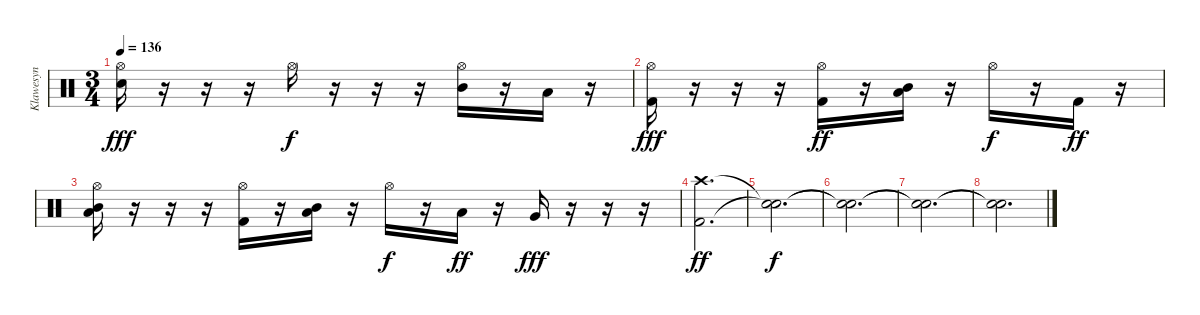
\track ("Klawesyn" "Klawesyn") {instrument percussion}
\staff {score}
\articulation defaults
\ts (3 4)
\tempo 136
\clef neutral
\ks c
("Hi-Hat (open)" "Snare (hit) 2").16{dy fff} r.16 r.16 r.16 "Hi-Hat (open)".16{dy f} r.16 r.16 r.16 ("Hi-Hat (open)" "Mid Tom (hit)").16 r.16 "Low Tom (hit)".16 r.16 |
("Hi-Hat (open)" "Kick (hit) 2").16{dy fff} r.16 r.16 r.16 ("Hi-Hat (open)" "Kick (hit) 2").16{dy ff} r.16 ("Low Tom (hit)" "Mid Tom (hit)").16 r.16 "Hi-Hat (open)".16{dy f} r.16 "Kick (hit) 2".16{dy ff} r.16 |
("Hi-Hat (open)" "Low Tom (hit)" "Mid Tom (hit)").16 r.16 r.16 r.16 ("Hi-Hat (open)" "Kick (hit) 2").16 r.16 ("Low Tom (hit)" "Mid Tom (hit)").16 r.16 "Hi-Hat (open)".16{dy f} r.16 "Low Tom (hit)".16{dy ff} r.16 "Very Low Tom (hit)".16{dy fff} r.16 r.16 r.16 |
("Crash high (hit)" "Kick (hit) 2").2{d dy ff} |
("Snare (hit)"{t} "Snare (hit)"{t}).2{d dy f} |
("Snare (hit)"{t} "Snare (hit)"{t}).2{d} |
("Snare (hit)"{t} "Snare (hit)"{t}).2{d} |
("Snare (hit)"{t} "Snare (hit)"{t}).2{d}
